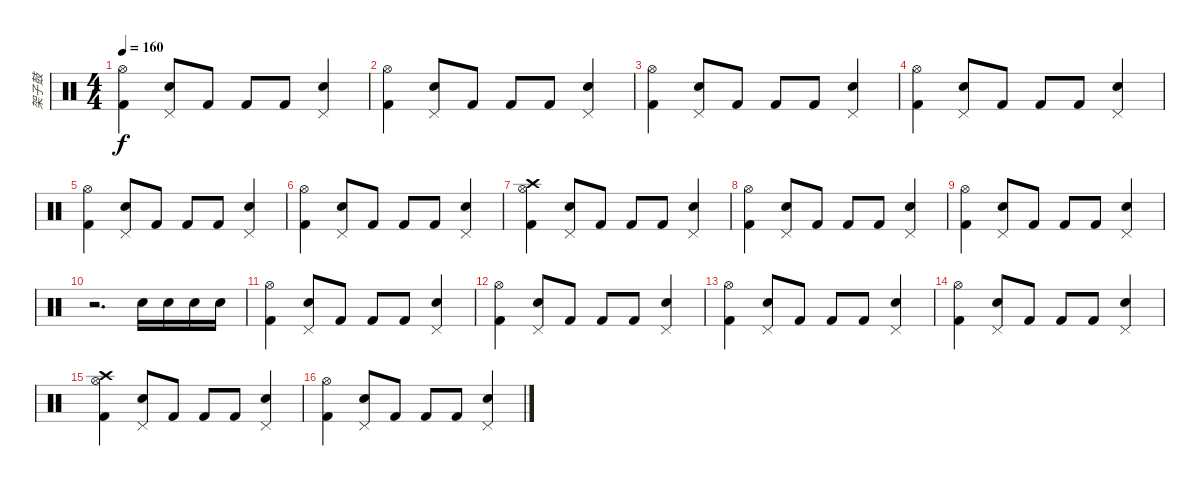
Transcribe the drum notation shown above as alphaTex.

\track ("架子鼓" "架子鼓") {instrument percussion}
\staff {score}
\articulation defaults
\ts (4 4)
\tempo 160
\clef neutral
\ks c
("Kick (hit) 2" "Hi-Hat (open)").4{dy f} ("Electric Snare (hit)" "Pedal Hi-Hat (hit)").8 "Kick (hit) 2".8 "Kick (hit) 2".8 "Kick (hit) 2".8 ("Electric Snare (hit)" "Pedal Hi-Hat (hit)").4 |
("Kick (hit) 2" "Hi-Hat (open)").4 ("Electric Snare (hit)" "Pedal Hi-Hat (hit)").8 "Kick (hit) 2".8 "Kick (hit) 2".8 "Kick (hit) 2".8 ("Electric Snare (hit)" "Pedal Hi-Hat (hit)").4 |
("Kick (hit) 2" "Hi-Hat (open)").4 ("Electric Snare (hit)" "Pedal Hi-Hat (hit)").8 "Kick (hit) 2".8 "Kick (hit) 2".8 "Kick (hit) 2".8 ("Electric Snare (hit)" "Pedal Hi-Hat (hit)").4 |
("Kick (hit) 2" "Hi-Hat (open)").4 ("Electric Snare (hit)" "Pedal Hi-Hat (hit)").8 "Kick (hit) 2".8 "Kick (hit) 2".8 "Kick (hit) 2".8 ("Electric Snare (hit)" "Pedal Hi-Hat (hit)").4 |
("Kick (hit) 2" "Hi-Hat (open)").4 ("Electric Snare (hit)" "Pedal Hi-Hat (hit)").8 "Kick (hit) 2".8 "Kick (hit) 2".8 "Kick (hit) 2".8 ("Electric Snare (hit)" "Pedal Hi-Hat (hit)").4 |
("Kick (hit) 2" "Hi-Hat (open)").4 ("Electric Snare (hit)" "Pedal Hi-Hat (hit)").8 "Kick (hit) 2".8 "Kick (hit) 2".8 "Kick (hit) 2".8 ("Electric Snare (hit)" "Pedal Hi-Hat (hit)").4 |
("Kick (hit) 2" "Hi-Hat (open)" "Crash high (hit)").4 ("Metronome (bell)" "Pedal Hi-Hat (hit)").8 "Kick (hit) 2".8 "Kick (hit) 2".8 "Kick (hit) 2".8 ("Metronome (bell)" "Pedal Hi-Hat (hit)").4 |
("Kick (hit) 2" "Hi-Hat (open)").4 ("Electric Snare (hit)" "Pedal Hi-Hat (hit)").8 "Kick (hit) 2".8 "Kick (hit) 2".8 "Kick (hit) 2".8 ("Electric Snare (hit)" "Pedal Hi-Hat (hit)").4 |
("Kick (hit) 2" "Hi-Hat (open)").4 ("Electric Snare (hit)" "Pedal Hi-Hat (hit)").8 "Kick (hit) 2".8 "Kick (hit) 2".8 "Kick (hit) 2".8 ("Electric Snare (hit)" "Pedal Hi-Hat (hit)").4 |
r.2{d} "Electric Snare (hit)".16 "Electric Snare (hit)".16 "Electric Snare (hit)".16 "Electric Snare (hit)".16 |
("Kick (hit) 2" "Hi-Hat (open)").4 ("Electric Snare (hit)" "Pedal Hi-Hat (hit)").8 "Kick (hit) 2".8 "Kick (hit) 2".8 "Kick (hit) 2".8 ("Electric Snare (hit)" "Pedal Hi-Hat (hit)").4 |
("Kick (hit) 2" "Hi-Hat (open)").4 ("Electric Snare (hit)" "Pedal Hi-Hat (hit)").8 "Kick (hit) 2".8 "Kick (hit) 2".8 "Kick (hit) 2".8 ("Electric Snare (hit)" "Pedal Hi-Hat (hit)").4 |
("Kick (hit) 2" "Hi-Hat (open)").4 ("Electric Snare (hit)" "Pedal Hi-Hat (hit)").8 "Kick (hit) 2".8 "Kick (hit) 2".8 "Kick (hit) 2".8 ("Electric Snare (hit)" "Pedal Hi-Hat (hit)").4 |
("Kick (hit) 2" "Hi-Hat (open)").4 ("Electric Snare (hit)" "Pedal Hi-Hat (hit)").8 "Kick (hit) 2".8 "Kick (hit) 2".8 "Kick (hit) 2".8 ("Electric Snare (hit)" "Pedal Hi-Hat (hit)").4 |
("Kick (hit) 2" "Hi-Hat (open)" "Crash high (hit)").4 ("Metronome (bell)" "Pedal Hi-Hat (hit)").8 "Kick (hit) 2".8 "Kick (hit) 2".8 "Kick (hit) 2".8 ("Metronome (bell)" "Pedal Hi-Hat (hit)").4 |
("Kick (hit) 2" "Hi-Hat (open)").4 ("Electric Snare (hit)" "Pedal Hi-Hat (hit)").8 "Kick (hit) 2".8 "Kick (hit) 2".8 "Kick (hit) 2".8 ("Electric Snare (hit)" "Pedal Hi-Hat (hit)").4
